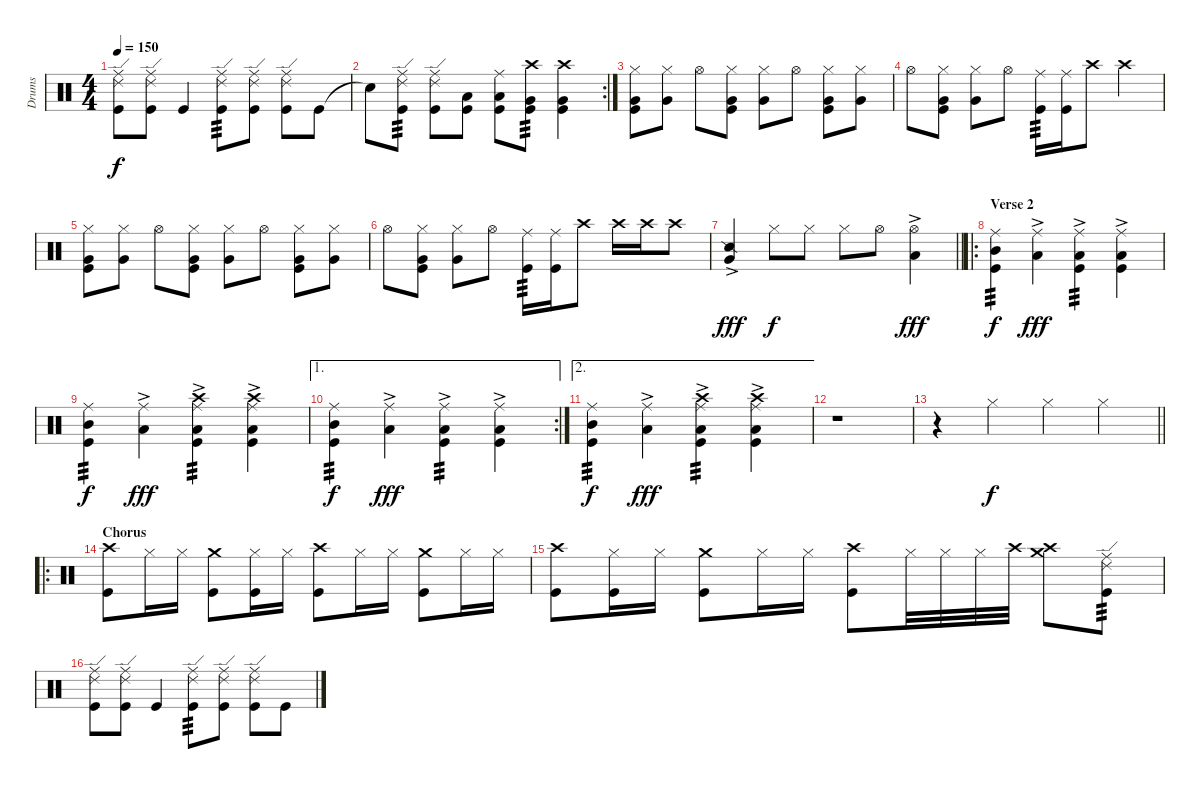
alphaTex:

\track ("Drums" "Drums") {instrument percussion}
\staff {score}
\articulation defaults
\ts (4 4)
\tempo 150
\clef neutral
\ks c
("Ride (middle)" "Ride (edge) 2" "Kick (hit)").8{dy f} ("Ride (middle)" "Ride (edge) 2" "Kick (hit)").8 "Kick (hit)".4 ("Ride (middle)" "Ride (edge) 2" "Kick (hit)").8{tp 3} ("Ride (middle)" "Ride (edge) 2" "Kick (hit)").8 ("Ride (middle)" "Ride (edge) 2" "Kick (hit)").8 "Kick (hit)".8 |
\rc 2 "Snare (hit)"{t}.8
("Ride (middle)" "Ride (edge) 2" "Kick (hit)").8{tp 3} ("Ride (middle)" "Ride (edge) 2" "Kick (hit)").8 ("Low Floor Tom (hit)" "Kick (hit)").8 ("Low Floor Tom (hit)" "Ride (middle)" "Kick (hit)").8 ("Very Low Tom (hit)" "Crash high (hit)" "Kick (hit)").8{tp 3} ("Very Low Tom (hit)" "Crash high (hit)" "Kick (hit)").4 |
("Hi-Hat (closed)" "Very Low Tom (hit)" "Kick (hit)").8 ("Hi-Hat (closed)" "Very Low Tom (hit)").8 "Hi-Hat (open)".8 ("Hi-Hat (closed)" "Very Low Tom (hit)" "Kick (hit)").8 ("Hi-Hat (closed)" "Very Low Tom (hit)").8 "Hi-Hat (open)".8 ("Hi-Hat (closed)" "Very Low Tom (hit)" "Kick (hit)").8 ("Hi-Hat (closed)" "Very Low Tom (hit)").8 |
"Hi-Hat (open)".8 ("Hi-Hat (closed)" "Very Low Tom (hit)" "Kick (hit)").8 ("Hi-Hat (closed)" "Very Low Tom (hit)").8 "Hi-Hat (open)".8 ("Ride (middle)" "Kick (hit)").16{tp 3} ("Ride (middle)" "Kick (hit)").16 "Crash high (hit)".8 "Crash high (hit)".4 |
("Hi-Hat (closed)" "Very Low Tom (hit)" "Kick (hit)").8 ("Hi-Hat (closed)" "Very Low Tom (hit)").8 "Hi-Hat (open)".8 ("Hi-Hat (closed)" "Very Low Tom (hit)" "Kick (hit)").8 ("Hi-Hat (closed)" "Very Low Tom (hit)").8 "Hi-Hat (open)".8 ("Hi-Hat (closed)" "Very Low Tom (hit)" "Kick (hit)").8 ("Hi-Hat (closed)" "Very Low Tom (hit)").8 |
"Hi-Hat (open)".8 ("Hi-Hat (closed)" "Very Low Tom (hit)" "Kick (hit)").8 ("Hi-Hat (closed)" "Very Low Tom (hit)").8 "Hi-Hat (open)".8 ("Ride (middle)" "Kick (hit)").16{tp 3} ("Ride (middle)" "Kick (hit)").16 "Crash high (hit)".8 "Crash high (hit)".16 "Crash high (hit)".16 "Crash high (hit)".8 |
\barLineRight lightlight
("Snare (side stick) 2"{ac} "Very Low Tom (hit)"{ac}).4{dy fff} "Hi-Hat (closed)".8{dy f} "Hi-Hat (closed)".8 "Hi-Hat (closed)".8 "Hi-Hat (open)".8 ("Hi-Hat (open)" "Low Floor Tom (hit)"{ac}).4{dy fff} |
\ro
\section ("" "Verse 2")
("Ride (middle)" "Mid Tom (hit)" "Kick (hit)").4{tp 3 dy f} ("Ride (middle)" "Low Tom (hit)"{ac}).4{dy fff} ("Ride (middle)" "Low Tom (hit)"{ac} "Kick (hit)").4{tp 3} ("Ride (middle)" "Low Tom (hit)"{ac} "Kick (hit)").4 |
("Ride (middle)" "Mid Tom (hit)" "Kick (hit)").4{tp 3 dy f} ("Ride (middle)" "Low Tom (hit)"{ac}).4{dy fff} ("Ride (middle)" "Low Floor Tom (hit)"{ac} "Crash high (hit)" "Kick (hit)").4{tp 3} ("Ride (middle)" "Low Floor Tom (hit)"{ac} "Crash high (hit)" "Kick (hit)").4 |
\ae 1
\rc 2
("Ride (middle)" "Mid Tom (hit)" "Kick (hit)").4{tp 3 dy f} ("Ride (middle)" "Low Tom (hit)"{ac}).4{dy fff} ("Ride (middle)" "Low Tom (hit)"{ac} "Kick (hit)").4{tp 3} ("Ride (middle)" "Low Tom (hit)"{ac} "Kick (hit)").4 |
\ae 2
("Ride (middle)" "Mid Tom (hit)" "Kick (hit)").4{tp 3 dy f} ("Ride (middle)" "Low Tom (hit)"{ac}).4{dy fff} ("Ride (middle)" "Low Floor Tom (hit)"{ac} "Crash high (hit)" "Kick (hit)").4{tp 3} ("Ride (middle)" "Low Floor Tom (hit)"{ac} "Crash high (hit)" "Kick (hit)").4 |
r.1 |
\barLineRight lightlight
r.4 "Hi-Hat (closed)".4{dy f} "Hi-Hat (closed)".4 "Hi-Hat (closed)".4 |
\ro
\section ("" "Chorus")
("Crash high (hit)" "Kick (hit)").8 "Hi-Hat (closed)".16 "Hi-Hat (closed)".16 ("Crash medium (hit)" "Kick (hit)").8 ("Hi-Hat (closed)" "Kick (hit)").16 "Hi-Hat (closed)".16 ("Crash high (hit)" "Kick (hit)").8 "Hi-Hat (closed)".16 "Hi-Hat (closed)".16 ("Crash medium (hit)" "Kick (hit)").8 "Hi-Hat (closed)".16 "Hi-Hat (closed)".16 |
("Crash high (hit)" "Kick (hit)").8 ("Hi-Hat (closed)" "Kick (hit)").16 "Hi-Hat (closed)".16 ("Crash medium (hit)" "Kick (hit)").8 "Hi-Hat (closed)".16 "Hi-Hat (closed)".16 ("Crash high (hit)" "Kick (hit)").8 "Hi-Hat (closed)".32 "Hi-Hat (closed)".32 "Hi-Hat (closed)".32 "Crash high (hit)".32 ("Crash high (hit)" "Crash medium (hit)").8 ("Ride (middle)" "Ride (edge) 2" "Kick (hit)").8{tp 3} |
("Ride (middle)" "Ride (edge) 2" "Kick (hit)").8 ("Ride (middle)" "Ride (edge) 2" "Kick (hit)").8 "Kick (hit)".4 ("Ride (middle)" "Ride (edge) 2" "Kick (hit)").8{tp 3} ("Ride (middle)" "Ride (edge) 2" "Kick (hit)").8 ("Ride (middle)" "Ride (edge) 2" "Kick (hit)").8 "Kick (hit)".8
